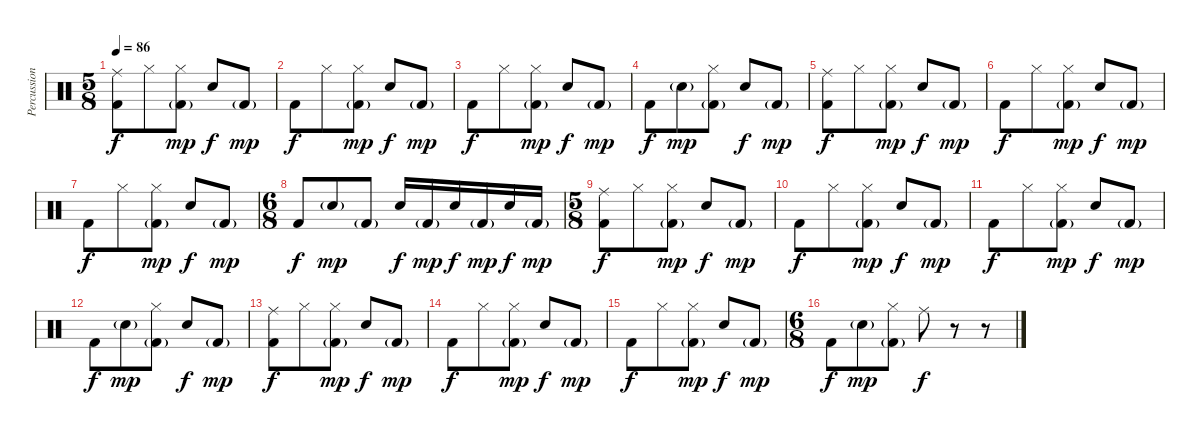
\track ("Percussion" "Percussion") {instrument percussion}
\staff {score}
\articulation defaults
\ts (5 8)
\tempo 86
\clef neutral
\ks c
("Ride (middle)" "Kick (hit) 2").8{dy f} "Hi-Hat (closed)".8 ("Hi-Hat (closed)" "Kick (hit) 2"{g}).8{dy mp} "Snare (hit) 2".8{dy f} "Kick (hit) 2"{g}.8{dy mp} |
"Kick (hit) 2".8{dy f} "Hi-Hat (closed)".8 ("Hi-Hat (closed)" "Kick (hit) 2"{g}).8{dy mp} "Snare (hit) 2".8{dy f} "Kick (hit) 2"{g}.8{dy mp} |
"Kick (hit) 2".8{dy f} "Hi-Hat (closed)".8 ("Hi-Hat (closed)" "Kick (hit) 2"{g}).8{dy mp} "Snare (hit) 2".8{dy f} "Kick (hit) 2"{g}.8{dy mp} |
"Kick (hit) 2".8{dy f} "Snare (hit) 2"{g}.8{dy mp} ("Hi-Hat (closed)" "Kick (hit) 2"{g}).8 "Snare (hit) 2".8{dy f} "Kick (hit) 2"{g}.8{dy mp} |
("Ride (middle)" "Kick (hit) 2").8{dy f} "Hi-Hat (closed)".8 ("Hi-Hat (closed)" "Kick (hit) 2"{g}).8{dy mp} "Snare (hit) 2".8{dy f} "Kick (hit) 2"{g}.8{dy mp} |
"Kick (hit) 2".8{dy f} "Hi-Hat (closed)".8 ("Hi-Hat (closed)" "Kick (hit) 2"{g}).8{dy mp} "Snare (hit) 2".8{dy f} "Kick (hit) 2"{g}.8{dy mp} |
"Kick (hit) 2".8{dy f} "Hi-Hat (closed)".8 ("Hi-Hat (closed)" "Kick (hit) 2"{g}).8{dy mp} "Snare (hit) 2".8{dy f} "Kick (hit) 2"{g}.8{dy mp} |
\ts (6 8)
"Kick (hit) 2".8{dy f} "Snare (hit) 2"{g}.8{dy mp} "Kick (hit) 2"{g}.8 "Snare (hit) 2".16{dy f} "Kick (hit) 2"{g}.16{dy mp} "Snare (hit) 2".16{dy f} "Kick (hit) 2"{g}.16{dy mp} "Snare (hit) 2".16{dy f} "Kick (hit) 2"{g}.16{dy mp} |
\ts (5 8)
("Ride (middle)" "Kick (hit) 2").8{dy f} "Hi-Hat (closed)".8 ("Hi-Hat (closed)" "Kick (hit) 2"{g}).8{dy mp} "Snare (hit) 2".8{dy f} "Kick (hit) 2"{g}.8{dy mp} |
"Kick (hit) 2".8{dy f} "Hi-Hat (closed)".8 ("Hi-Hat (closed)" "Kick (hit) 2"{g}).8{dy mp} "Snare (hit) 2".8{dy f} "Kick (hit) 2"{g}.8{dy mp} |
"Kick (hit) 2".8{dy f} "Hi-Hat (closed)".8 ("Hi-Hat (closed)" "Kick (hit) 2"{g}).8{dy mp} "Snare (hit) 2".8{dy f} "Kick (hit) 2"{g}.8{dy mp} |
"Kick (hit) 2".8{dy f} "Snare (hit) 2"{g}.8{dy mp} ("Hi-Hat (closed)" "Kick (hit) 2"{g}).8 "Snare (hit) 2".8{dy f} "Kick (hit) 2"{g}.8{dy mp} |
("Ride (middle)" "Kick (hit) 2").8{dy f} "Hi-Hat (closed)".8 ("Hi-Hat (closed)" "Kick (hit) 2"{g}).8{dy mp} "Snare (hit) 2".8{dy f} "Kick (hit) 2"{g}.8{dy mp} |
"Kick (hit) 2".8{dy f} "Hi-Hat (closed)".8 ("Hi-Hat (closed)" "Kick (hit) 2"{g}).8{dy mp} "Snare (hit) 2".8{dy f} "Kick (hit) 2"{g}.8{dy mp} |
"Kick (hit) 2".8{dy f} "Hi-Hat (closed)".8 ("Hi-Hat (closed)" "Kick (hit) 2"{g}).8{dy mp} "Snare (hit) 2".8{dy f} "Kick (hit) 2"{g}.8{dy mp} |
\ts (6 8)
"Kick (hit) 2".8{dy f} "Snare (hit) 2"{g}.8{dy mp} ("Hi-Hat (closed)" "Kick (hit) 2"{g}).8 "Ride (middle)".8{dy f} r.8 r.8
